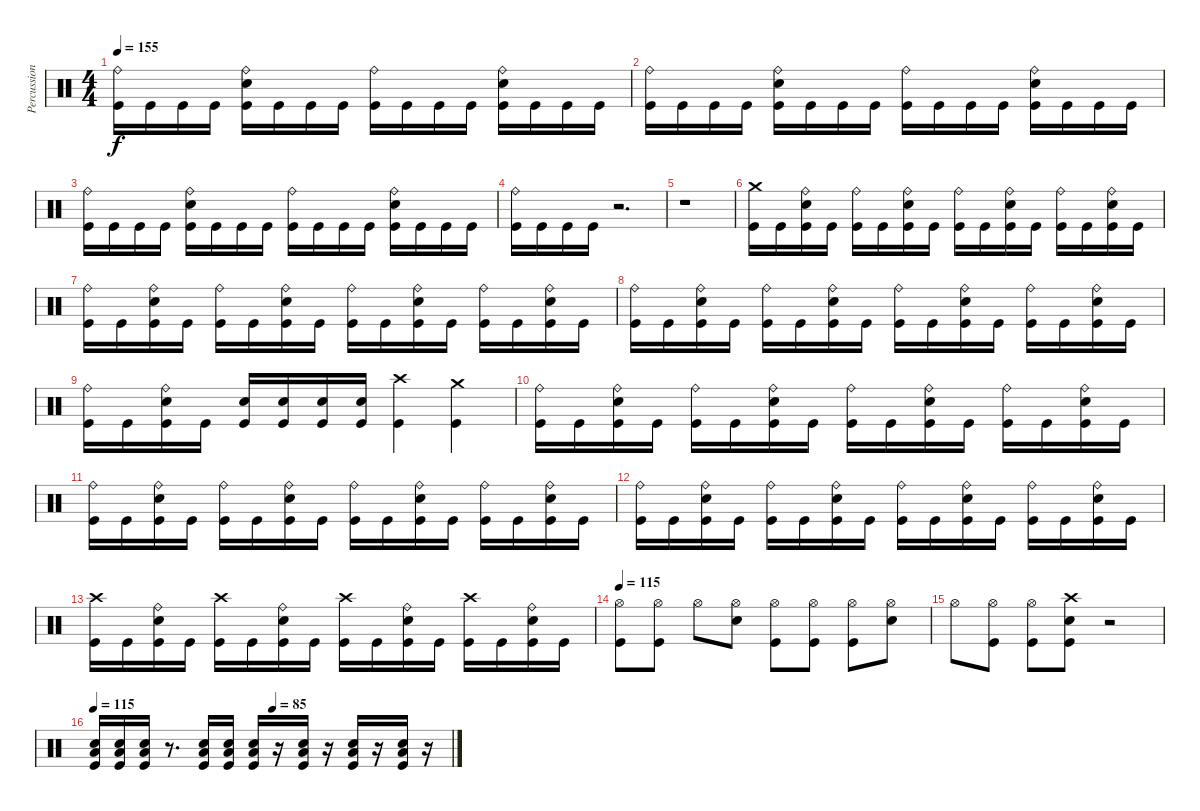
\track ("Percussion" "Percussion") {instrument percussion}
\staff {score}
\articulation defaults
\ts (4 4)
\tempo 155
\clef neutral
\ks c
("Ride (bell)" "Kick (hit)").16{dy f} "Kick (hit)".16 "Kick (hit)".16 "Kick (hit)".16 ("Ride (bell)" "Snare (hit) 2" "Kick (hit)").16 "Kick (hit)".16 "Kick (hit)".16 "Kick (hit)".16 ("Ride (bell)" "Kick (hit)").16 "Kick (hit)".16 "Kick (hit)".16 "Kick (hit)".16 ("Ride (bell)" "Snare (hit) 2" "Kick (hit)").16 "Kick (hit)".16 "Kick (hit)".16 "Kick (hit)".16 |
("Ride (bell)" "Kick (hit)").16 "Kick (hit)".16 "Kick (hit)".16 "Kick (hit)".16 ("Ride (bell)" "Snare (hit) 2" "Kick (hit)").16 "Kick (hit)".16 "Kick (hit)".16 "Kick (hit)".16 ("Ride (bell)" "Kick (hit)").16 "Kick (hit)".16 "Kick (hit)".16 "Kick (hit)".16 ("Ride (bell)" "Snare (hit) 2" "Kick (hit)").16 "Kick (hit)".16 "Kick (hit)".16 "Kick (hit)".16 |
("Ride (bell)" "Kick (hit)").16 "Kick (hit)".16 "Kick (hit)".16 "Kick (hit)".16 ("Ride (bell)" "Snare (hit) 2" "Kick (hit)").16 "Kick (hit)".16 "Kick (hit)".16 "Kick (hit)".16 ("Ride (bell)" "Kick (hit)").16 "Kick (hit)".16 "Kick (hit)".16 "Kick (hit)".16 ("Ride (bell)" "Snare (hit) 2" "Kick (hit)").16 "Kick (hit)".16 "Kick (hit)".16 "Kick (hit)".16 |
("Ride (bell)" "Kick (hit)").16 "Kick (hit)".16 "Kick (hit)".16 "Kick (hit)".16 r.2{d} |
r.1 |
("Crash medium (hit)" "Kick (hit)").16 "Kick (hit)".16 ("Ride (bell)" "Snare (hit) 2" "Kick (hit)").16 "Kick (hit)".16 ("Ride (bell)" "Kick (hit)").16 "Kick (hit)".16 ("Ride (bell)" "Snare (hit) 2" "Kick (hit)").16 "Kick (hit)".16 ("Ride (bell)" "Kick (hit)").16 "Kick (hit)".16 ("Ride (bell)" "Snare (hit) 2" "Kick (hit)").16 "Kick (hit)".16 ("Ride (bell)" "Kick (hit)").16 "Kick (hit)".16 ("Ride (bell)" "Snare (hit) 2" "Kick (hit)").16 "Kick (hit)".16 |
("Ride (bell)" "Kick (hit)").16 "Kick (hit)".16 ("Ride (bell)" "Snare (hit) 2" "Kick (hit)").16 "Kick (hit)".16 ("Ride (bell)" "Kick (hit)").16 "Kick (hit)".16 ("Ride (bell)" "Snare (hit) 2" "Kick (hit)").16 "Kick (hit)".16 ("Ride (bell)" "Kick (hit)").16 "Kick (hit)".16 ("Ride (bell)" "Snare (hit) 2" "Kick (hit)").16 "Kick (hit)".16 ("Ride (bell)" "Kick (hit)").16 "Kick (hit)".16 ("Ride (bell)" "Snare (hit) 2" "Kick (hit)").16 "Kick (hit)".16 |
("Ride (bell)" "Kick (hit)").16 "Kick (hit)".16 ("Ride (bell)" "Snare (hit) 2" "Kick (hit)").16 "Kick (hit)".16 ("Ride (bell)" "Kick (hit)").16 "Kick (hit)".16 ("Ride (bell)" "Snare (hit) 2" "Kick (hit)").16 "Kick (hit)".16 ("Ride (bell)" "Kick (hit)").16 "Kick (hit)".16 ("Ride (bell)" "Snare (hit) 2" "Kick (hit)").16 "Kick (hit)".16 ("Ride (bell)" "Kick (hit)").16 "Kick (hit)".16 ("Ride (bell)" "Snare (hit) 2" "Kick (hit)").16 "Kick (hit)".16 |
("Ride (bell)" "Kick (hit)").16 "Kick (hit)".16 ("Ride (bell)" "Snare (hit) 2" "Kick (hit)").16 "Kick (hit)".16 ("Snare (hit) 2" "Kick (hit)").16 ("Snare (hit) 2" "Kick (hit)").16 ("Snare (hit) 2" "Kick (hit)").16 ("Snare (hit) 2" "Kick (hit)").16 ("Crash high (hit)" "Kick (hit)").4 ("Crash medium (hit)" "Kick (hit)").4 |
("Ride (bell)" "Kick (hit)").16 "Kick (hit)".16 ("Ride (bell)" "Snare (hit) 2" "Kick (hit)").16 "Kick (hit)".16 ("Ride (bell)" "Kick (hit)").16 "Kick (hit)".16 ("Ride (bell)" "Snare (hit) 2" "Kick (hit)").16 "Kick (hit)".16 ("Ride (bell)" "Kick (hit)").16 "Kick (hit)".16 ("Ride (bell)" "Snare (hit) 2" "Kick (hit)").16 "Kick (hit)".16 ("Ride (bell)" "Kick (hit)").16 "Kick (hit)".16 ("Ride (bell)" "Snare (hit) 2" "Kick (hit)").16 "Kick (hit)".16 |
("Ride (bell)" "Kick (hit)").16 "Kick (hit)".16 ("Ride (bell)" "Snare (hit) 2" "Kick (hit)").16 "Kick (hit)".16 ("Ride (bell)" "Kick (hit)").16 "Kick (hit)".16 ("Ride (bell)" "Snare (hit) 2" "Kick (hit)").16 "Kick (hit)".16 ("Ride (bell)" "Kick (hit)").16 "Kick (hit)".16 ("Ride (bell)" "Snare (hit) 2" "Kick (hit)").16 "Kick (hit)".16 ("Ride (bell)" "Kick (hit)").16 "Kick (hit)".16 ("Ride (bell)" "Snare (hit) 2" "Kick (hit)").16 "Kick (hit)".16 |
("Ride (bell)" "Kick (hit)").16 "Kick (hit)".16 ("Ride (bell)" "Snare (hit) 2" "Kick (hit)").16 "Kick (hit)".16 ("Ride (bell)" "Kick (hit)").16 "Kick (hit)".16 ("Ride (bell)" "Snare (hit) 2" "Kick (hit)").16 "Kick (hit)".16 ("Ride (bell)" "Kick (hit)").16 "Kick (hit)".16 ("Ride (bell)" "Snare (hit) 2" "Kick (hit)").16 "Kick (hit)".16 ("Ride (bell)" "Kick (hit)").16 "Kick (hit)".16 ("Ride (bell)" "Snare (hit) 2" "Kick (hit)").16 "Kick (hit)".16 |
("Crash high (hit)" "Kick (hit)").16 "Kick (hit)".16 ("Ride (bell)" "Snare (hit) 2" "Kick (hit)").16 "Kick (hit)".16 ("Crash high (hit)" "Kick (hit)").16 "Kick (hit)".16 ("Ride (bell)" "Snare (hit) 2" "Kick (hit)").16 "Kick (hit)".16 ("Crash high (hit)" "Kick (hit)").16 "Kick (hit)".16 ("Ride (bell)" "Snare (hit) 2" "Kick (hit)").16 "Kick (hit)".16 ("Crash high (hit)" "Kick (hit)").16 "Kick (hit)".16 ("Ride (bell)" "Snare (hit) 2" "Kick (hit)").16 "Kick (hit)".16 |
\tempo 115
("Hi-Hat (open)" "Kick (hit)").8 ("Hi-Hat (open)" "Kick (hit)").8 "Hi-Hat (open)".8 ("Hi-Hat (open)" "Snare (hit) 2").8 ("Hi-Hat (open)" "Kick (hit)").8 ("Hi-Hat (open)" "Kick (hit)").8 ("Hi-Hat (open)" "Kick (hit)").8 ("Hi-Hat (open)" "Snare (hit) 2").8 |
"Hi-Hat (open)".8 ("Hi-Hat (open)" "Kick (hit)").8 ("Hi-Hat (open)" "Kick (hit)").8 ("Crash high (hit)" "Snare (hit) 2" "Kick (hit)").8 r.2 |
\tempo 115
\tempo (85 0.5)
("Low Floor Tom (hit)" "Snare (hit) 2" "Kick (hit)").16 ("Low Floor Tom (hit)" "Snare (hit) 2" "Kick (hit)").16 ("Low Floor Tom (hit)" "Snare (hit) 2" "Kick (hit)").16 r.8{d} ("Low Floor Tom (hit)" "Snare (hit) 2" "Kick (hit)").16 ("Low Floor Tom (hit)" "Snare (hit) 2" "Kick (hit)").16 ("Low Floor Tom (hit)" "Snare (hit) 2" "Kick (hit)").16 r.16 ("Low Floor Tom (hit)" "Snare (hit) 2" "Kick (hit)").16 r.16 ("Low Floor Tom (hit)" "Snare (hit) 2" "Kick (hit)").16 r.16 ("Low Floor Tom (hit)" "Snare (hit) 2" "Kick (hit)").16 r.16
